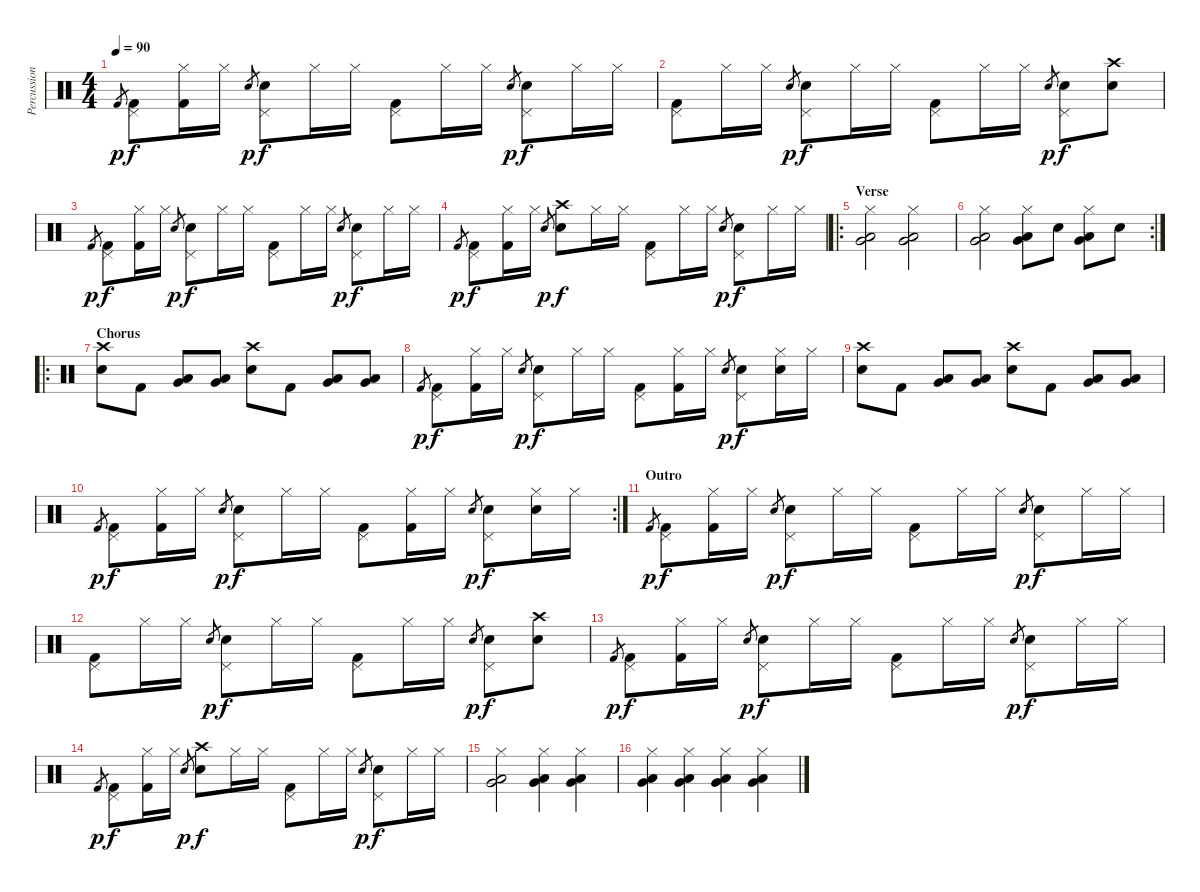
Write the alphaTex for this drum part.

\track ("Percussion" "Percussion") {instrument percussion}
\staff {score}
\articulation defaults
\ts (4 4)
\tempo 90
\clef neutral
\ks c "Kick (hit) 2".8{gr dy p}
("Pedal Hi-Hat (hit)" "Kick (hit) 2").8{dy f} ("Hi-Hat (closed)" "Kick (hit) 2").16 "Hi-Hat (closed)".16 "Snare (hit) 2".8{gr dy p} ("Pedal Hi-Hat (hit)" "Snare (hit) 2").8{dy f} "Hi-Hat (closed)".16 "Hi-Hat (closed)".16 ("Pedal Hi-Hat (hit)" "Kick (hit) 2").8 "Hi-Hat (closed)".16 "Hi-Hat (closed)".16 "Snare (hit) 2".8{gr dy p} ("Pedal Hi-Hat (hit)" "Snare (hit) 2").8{dy f} "Hi-Hat (closed)".16 "Hi-Hat (closed)".16 |
("Pedal Hi-Hat (hit)" "Kick (hit) 2").8 "Hi-Hat (closed)".16 "Hi-Hat (closed)".16 "Snare (hit) 2".8{gr dy p} ("Pedal Hi-Hat (hit)" "Snare (hit) 2").8{dy f} "Hi-Hat (closed)".16 "Hi-Hat (closed)".16 ("Pedal Hi-Hat (hit)" "Kick (hit) 2").8 "Hi-Hat (closed)".16 "Hi-Hat (closed)".16 "Snare (hit) 2".8{gr dy p} ("Pedal Hi-Hat (hit)" "Snare (hit) 2").8{dy f} ("Crash high (hit)" "Snare (hit) 2").8 |
"Kick (hit) 2".8{gr dy p} ("Pedal Hi-Hat (hit)" "Kick (hit) 2").8{dy f} ("Hi-Hat (closed)" "Kick (hit) 2").16 "Hi-Hat (closed)".16 "Snare (hit) 2".8{gr dy p} ("Pedal Hi-Hat (hit)" "Snare (hit) 2").8{dy f} "Hi-Hat (closed)".16 "Hi-Hat (closed)".16 ("Pedal Hi-Hat (hit)" "Kick (hit) 2").8 "Hi-Hat (closed)".16 "Hi-Hat (closed)".16 "Snare (hit) 2".8{gr dy p} ("Pedal Hi-Hat (hit)" "Snare (hit) 2").8{dy f} "Hi-Hat (closed)".16 "Hi-Hat (closed)".16 |
"Kick (hit) 2".8{gr dy p} ("Pedal Hi-Hat (hit)" "Kick (hit) 2").8{dy f} ("Hi-Hat (closed)" "Kick (hit) 2").16 "Hi-Hat (closed)".16 "Snare (hit) 2".8{gr dy p} ("Crash high (hit)" "Snare (hit) 2").8{dy f} "Hi-Hat (closed)".16 "Hi-Hat (closed)".16 ("Pedal Hi-Hat (hit)" "Kick (hit) 2").8 "Hi-Hat (closed)".16 "Hi-Hat (closed)".16 "Snare (hit) 2".8{gr dy p} ("Pedal Hi-Hat (hit)" "Snare (hit) 2").8{dy f} "Hi-Hat (closed)".16 "Hi-Hat (closed)".16 |
\ro
\section ("" "Verse")
("Hi-Hat (closed)" "Very Low Tom (hit)" "Low Floor Tom (hit)").2 ("Hi-Hat (closed)" "Very Low Tom (hit)" "Low Floor Tom (hit)").2 |
\rc 2
("Hi-Hat (closed)" "Very Low Tom (hit)" "Low Floor Tom (hit)").2 ("Hi-Hat (closed)" "Very Low Tom (hit)" "Low Floor Tom (hit)").8 "Snare (hit) 2".8 ("Hi-Hat (closed)" "Very Low Tom (hit)" "Low Floor Tom (hit)").8 "Snare (hit) 2".8 |
\ro
\section ("" "Chorus")
("Crash high (hit)" "Snare (hit) 2").8 "Kick (hit) 2".8 ("Low Floor Tom (hit)" "Very Low Tom (hit)").8 ("Low Floor Tom (hit)" "Very Low Tom (hit)").8 ("Crash high (hit)" "Snare (hit) 2").8 "Kick (hit) 2".8 ("Low Floor Tom (hit)" "Very Low Tom (hit)").8 ("Low Floor Tom (hit)" "Very Low Tom (hit)").8 |
"Kick (hit) 2".8{gr dy p} ("Pedal Hi-Hat (hit)" "Kick (hit) 2").8{dy f} ("Hi-Hat (closed)" "Kick (hit) 2").16 "Hi-Hat (closed)".16 "Snare (hit) 2".8{gr dy p} ("Pedal Hi-Hat (hit)" "Snare (hit) 2").8{dy f} "Hi-Hat (closed)".16 "Hi-Hat (closed)".16 ("Pedal Hi-Hat (hit)" "Kick (hit) 2").8 ("Hi-Hat (closed)" "Kick (hit) 2").16 "Hi-Hat (closed)".16 "Snare (hit) 2".8{gr dy p} ("Pedal Hi-Hat (hit)" "Snare (hit) 2").8{dy f} ("Hi-Hat (closed)" "Snare (hit) 2").16 "Hi-Hat (closed)".16 |
("Crash high (hit)" "Snare (hit) 2").8 "Kick (hit) 2".8 ("Low Floor Tom (hit)" "Very Low Tom (hit)").8 ("Low Floor Tom (hit)" "Very Low Tom (hit)").8 ("Crash high (hit)" "Snare (hit) 2").8 "Kick (hit) 2".8 ("Low Floor Tom (hit)" "Very Low Tom (hit)").8 ("Low Floor Tom (hit)" "Very Low Tom (hit)").8 |
\rc 2 "Kick (hit) 2".8{gr dy p}
("Pedal Hi-Hat (hit)" "Kick (hit) 2").8{dy f} ("Hi-Hat (closed)" "Kick (hit) 2").16 "Hi-Hat (closed)".16 "Snare (hit) 2".8{gr dy p} ("Pedal Hi-Hat (hit)" "Snare (hit) 2").8{dy f} "Hi-Hat (closed)".16 "Hi-Hat (closed)".16 ("Pedal Hi-Hat (hit)" "Kick (hit) 2").8 ("Hi-Hat (closed)" "Kick (hit) 2").16 "Hi-Hat (closed)".16 "Snare (hit) 2".8{gr dy p} ("Pedal Hi-Hat (hit)" "Snare (hit) 2").8{dy f} ("Hi-Hat (closed)" "Snare (hit) 2").16 "Hi-Hat (closed)".16 |
\section ("" "Outro")
"Kick (hit) 2".8{gr dy p} ("Pedal Hi-Hat (hit)" "Kick (hit) 2").8{dy f} ("Hi-Hat (closed)" "Kick (hit) 2").16 "Hi-Hat (closed)".16 "Snare (hit) 2".8{gr dy p} ("Pedal Hi-Hat (hit)" "Snare (hit) 2").8{dy f} "Hi-Hat (closed)".16 "Hi-Hat (closed)".16 ("Pedal Hi-Hat (hit)" "Kick (hit) 2").8 "Hi-Hat (closed)".16 "Hi-Hat (closed)".16 "Snare (hit) 2".8{gr dy p} ("Pedal Hi-Hat (hit)" "Snare (hit) 2").8{dy f} "Hi-Hat (closed)".16 "Hi-Hat (closed)".16 |
("Pedal Hi-Hat (hit)" "Kick (hit) 2").8 "Hi-Hat (closed)".16 "Hi-Hat (closed)".16 "Snare (hit) 2".8{gr dy p} ("Pedal Hi-Hat (hit)" "Snare (hit) 2").8{dy f} "Hi-Hat (closed)".16 "Hi-Hat (closed)".16 ("Pedal Hi-Hat (hit)" "Kick (hit) 2").8 "Hi-Hat (closed)".16 "Hi-Hat (closed)".16 "Snare (hit) 2".8{gr dy p} ("Pedal Hi-Hat (hit)" "Snare (hit) 2").8{dy f} ("Crash high (hit)" "Snare (hit) 2").8 |
"Kick (hit) 2".8{gr dy p} ("Pedal Hi-Hat (hit)" "Kick (hit) 2").8{dy f} ("Hi-Hat (closed)" "Kick (hit) 2").16 "Hi-Hat (closed)".16 "Snare (hit) 2".8{gr dy p} ("Pedal Hi-Hat (hit)" "Snare (hit) 2").8{dy f} "Hi-Hat (closed)".16 "Hi-Hat (closed)".16 ("Pedal Hi-Hat (hit)" "Kick (hit) 2").8 "Hi-Hat (closed)".16 "Hi-Hat (closed)".16 "Snare (hit) 2".8{gr dy p} ("Pedal Hi-Hat (hit)" "Snare (hit) 2").8{dy f} "Hi-Hat (closed)".16 "Hi-Hat (closed)".16 |
"Kick (hit) 2".8{gr dy p} ("Pedal Hi-Hat (hit)" "Kick (hit) 2").8{dy f} ("Hi-Hat (closed)" "Kick (hit) 2").16 "Hi-Hat (closed)".16 "Snare (hit) 2".8{gr dy p} ("Crash high (hit)" "Snare (hit) 2").8{dy f} "Hi-Hat (closed)".16 "Hi-Hat (closed)".16 ("Pedal Hi-Hat (hit)" "Kick (hit) 2").8 "Hi-Hat (closed)".16 "Hi-Hat (closed)".16 "Snare (hit) 2".8{gr dy p} ("Pedal Hi-Hat (hit)" "Snare (hit) 2").8{dy f} "Hi-Hat (closed)".16 "Hi-Hat (closed)".16 |
("Hi-Hat (closed)" "Very Low Tom (hit)" "Low Floor Tom (hit)").2 ("Hi-Hat (closed)" "Very Low Tom (hit)" "Low Floor Tom (hit)").4 ("Hi-Hat (closed)" "Very Low Tom (hit)" "Low Floor Tom (hit)").4 |
("Hi-Hat (closed)" "Very Low Tom (hit)" "Low Floor Tom (hit)").4 ("Hi-Hat (closed)" "Very Low Tom (hit)" "Low Floor Tom (hit)").4 ("Hi-Hat (closed)" "Very Low Tom (hit)" "Low Floor Tom (hit)").4 ("Hi-Hat (closed)" "Very Low Tom (hit)" "Low Floor Tom (hit)").4
